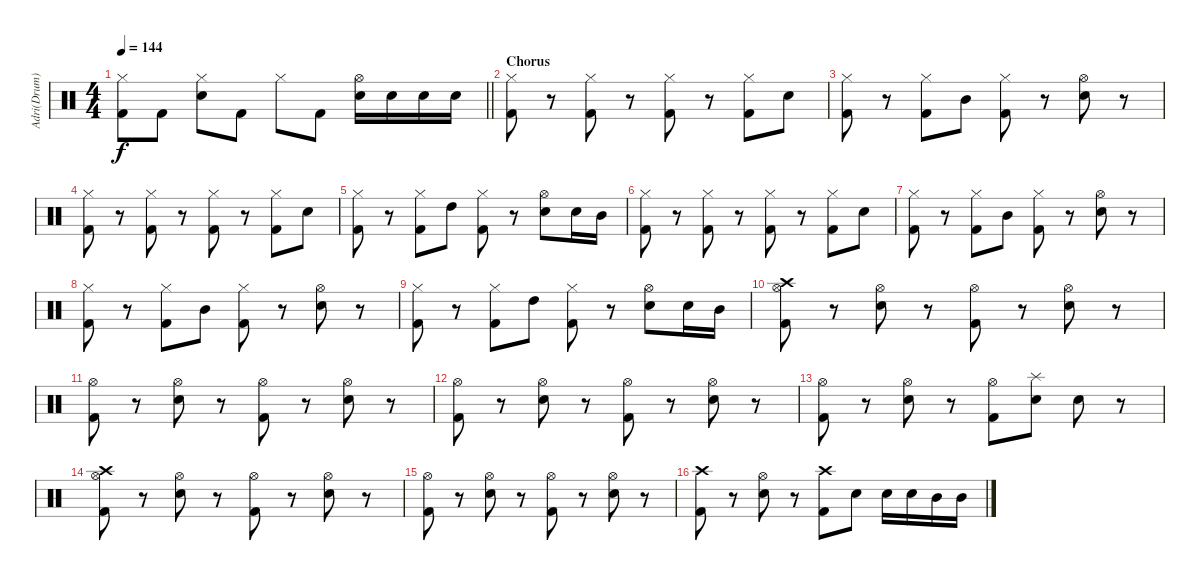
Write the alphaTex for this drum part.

\track ("Adri(Drum)" "Adri(Drum)") {instrument percussion}
\staff {score}
\articulation defaults
\ts (4 4)
\tempo 144
\clef neutral
\barLineRight lightlight
\ks c
("Hi-Hat (closed)" "Kick (hit) 2").8{dy f} "Kick (hit) 2".8 ("Hi-Hat (closed)" "Electric Snare (hit)").8 "Kick (hit) 2".8 "Hi-Hat (closed)".8 "Kick (hit) 2".8 ("Hi-Hat (open)" "Electric Snare (hit)").16 "Electric Snare (hit)".16 "Electric Snare (hit)".16 "Electric Snare (hit)".16 |
\section ("" "Chorus")
("Hi-Hat (closed)" "Kick (hit) 2").8 r.8 ("Hi-Hat (closed)" "Kick (hit) 2").8 r.8 ("Hi-Hat (closed)" "Kick (hit) 2").8 r.8 ("Hi-Hat (closed)" "Kick (hit) 2").8 "Electric Snare (hit)".8 |
("Hi-Hat (closed)" "Kick (hit) 2").8 r.8 ("Hi-Hat (closed)" "Kick (hit) 2").8 "Mid Tom (hit)".8 ("Hi-Hat (closed)" "Kick (hit) 2").8 r.8 ("Hi-Hat (open)" "Electric Snare (hit)").8 r.8 |
("Hi-Hat (closed)" "Kick (hit) 2").8 r.8 ("Hi-Hat (closed)" "Kick (hit) 2").8 r.8 ("Hi-Hat (closed)" "Kick (hit) 2").8 r.8 ("Hi-Hat (closed)" "Kick (hit) 2").8 "Electric Snare (hit)".8 |
("Hi-Hat (closed)" "Kick (hit) 2").8 r.8 ("Hi-Hat (closed)" "Kick (hit) 2").8 "High Tom (hit)".8 ("Hi-Hat (closed)" "Kick (hit) 2").8 r.8 ("Hi-Hat (open)" "Electric Snare (hit)").8 "Electric Snare (hit)".16 "Mid Tom (hit)".16 |
("Hi-Hat (closed)" "Kick (hit) 2").8 r.8 ("Hi-Hat (closed)" "Kick (hit) 2").8 r.8 ("Hi-Hat (closed)" "Kick (hit) 2").8 r.8 ("Hi-Hat (closed)" "Kick (hit) 2").8 "Electric Snare (hit)".8 |
("Hi-Hat (closed)" "Kick (hit) 2").8 r.8 ("Hi-Hat (closed)" "Kick (hit) 2").8 "Mid Tom (hit)".8 ("Hi-Hat (closed)" "Kick (hit) 2").8 r.8 ("Hi-Hat (open)" "Electric Snare (hit)").8 r.8 |
("Hi-Hat (closed)" "Kick (hit) 2").8 r.8 ("Hi-Hat (closed)" "Kick (hit) 2").8 "Mid Tom (hit)".8 ("Hi-Hat (closed)" "Kick (hit) 2").8 r.8 ("Hi-Hat (open)" "Electric Snare (hit)").8 r.8 |
("Hi-Hat (closed)" "Kick (hit) 2").8 r.8 ("Hi-Hat (closed)" "Kick (hit) 2").8 "High Tom (hit)".8 ("Hi-Hat (closed)" "Kick (hit) 2").8 r.8 ("Hi-Hat (open)" "Electric Snare (hit)").8 "Electric Snare (hit)".16 "Mid Tom (hit)".16 |
("Crash high (hit)" "Hi-Hat (open)" "Kick (hit) 2").8 r.8 ("Hi-Hat (open)" "Electric Snare (hit)").8 r.8 ("Hi-Hat (open)" "Kick (hit) 2").8 r.8 ("Hi-Hat (open)" "Electric Snare (hit)").8 r.8 |
("Hi-Hat (open)" "Kick (hit) 2").8 r.8 ("Hi-Hat (open)" "Electric Snare (hit)").8 r.8 ("Hi-Hat (open)" "Kick (hit) 2").8 r.8 ("Hi-Hat (open)" "Electric Snare (hit)").8 r.8 |
("Hi-Hat (open)" "Kick (hit) 2").8 r.8 ("Hi-Hat (open)" "Electric Snare (hit)").8 r.8 ("Hi-Hat (open)" "Kick (hit) 2").8 r.8 ("Hi-Hat (open)" "Electric Snare (hit)").8 r.8 |
("Hi-Hat (open)" "Kick (hit) 2").8 r.8 ("Hi-Hat (open)" "Electric Snare (hit)").8 r.8 ("Hi-Hat (open)" "Kick (hit) 2").8 ("Splash (hit)" "Electric Snare (hit)").8 "Electric Snare (hit)".8 r.8 |
("Crash high (hit)" "Hi-Hat (open)" "Kick (hit) 2").8 r.8 ("Hi-Hat (open)" "Electric Snare (hit)").8 r.8 ("Hi-Hat (open)" "Kick (hit) 2").8 r.8 ("Hi-Hat (open)" "Electric Snare (hit)").8 r.8 |
("Hi-Hat (open)" "Kick (hit) 2").8 r.8 ("Hi-Hat (open)" "Electric Snare (hit)").8 r.8 ("Hi-Hat (open)" "Kick (hit) 2").8 r.8 ("Hi-Hat (open)" "Electric Snare (hit)").8 r.8 |
("Crash high (hit)" "Kick (hit) 2").8 r.8 ("Hi-Hat (open)" "Electric Snare (hit)").8 r.8 ("Crash high (hit)" "Kick (hit) 2").8 "Electric Snare (hit)".8 "Electric Snare (hit)".16 "Electric Snare (hit)".16 "Mid Tom (hit)".16 "Mid Tom (hit)".16
